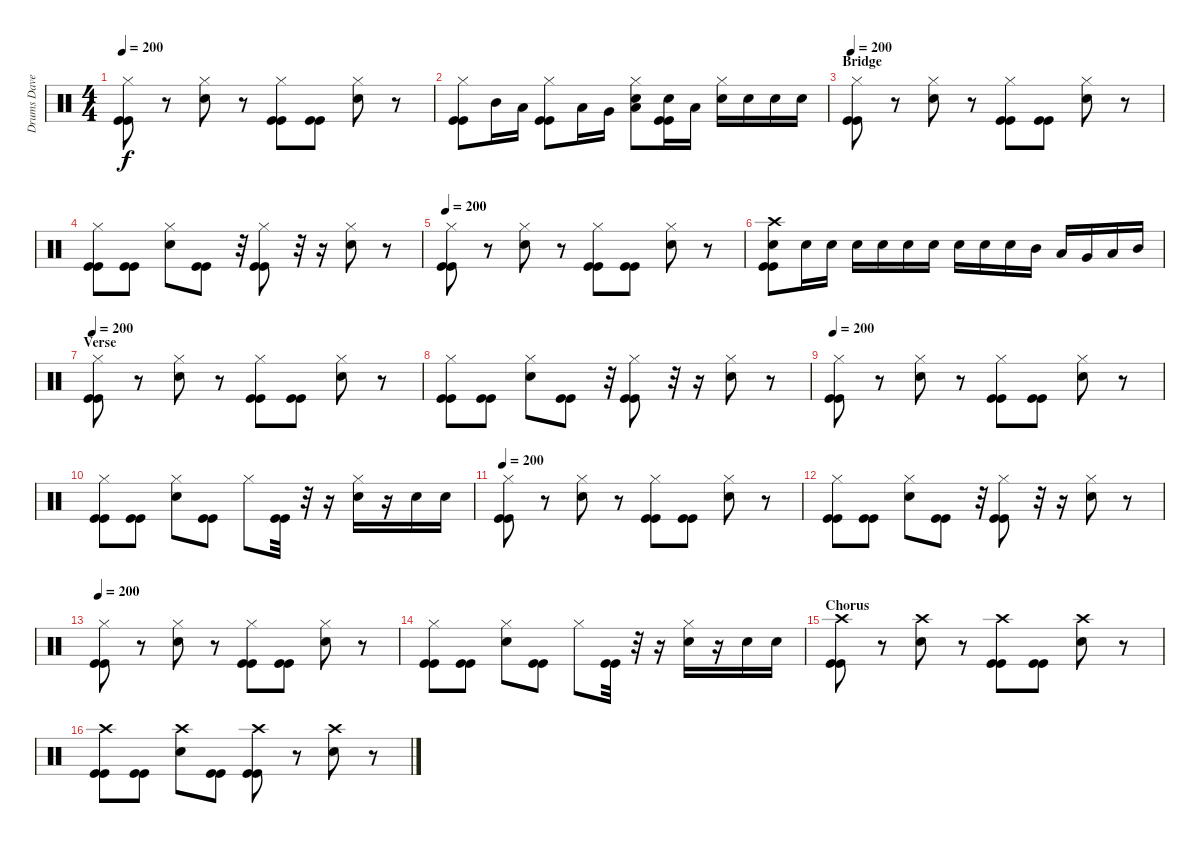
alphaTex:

\track ("Drums Dave Grohl" "Drums Dave") {instrument percussion}
\staff {score}
\articulation defaults
\ts (4 4)
\tempo 200
\clef neutral
\ks c
("Hi-Hat (closed)" "Kick (hit)" "Kick (hit)").8{dy f} r.8 ("Hi-Hat (closed)" "Electric Snare (hit)").8 r.8 ("Hi-Hat (closed)" "Kick (hit)" "Kick (hit)").8 ("Kick (hit)" "Kick (hit)").8 ("Hi-Hat (closed)" "Electric Snare (hit)").8 r.8 |
("Hi-Hat (closed)" "Kick (hit)" "Kick (hit)").8 "Mid Tom (hit)".16 "Low Tom (hit)".16 ("Hi-Hat (closed)" "Kick (hit)" "Kick (hit)").8 "Low Tom (hit)".16 "Very Low Tom (hit)".16 ("Hi-Hat (closed)" "Low Tom (hit)" "Electric Snare (hit)").8 ("Electric Snare (hit)" "Kick (hit)" "Kick (hit)").16 "Low Tom (hit)".16 ("Hi-Hat (closed)" "Electric Snare (hit)").16 "Electric Snare (hit)".16 "Electric Snare (hit)".16 "Electric Snare (hit)".16 |
\section ("" "Bridge")
\tempo 200
("Hi-Hat (closed)" "Kick (hit)" "Kick (hit)").8 r.8 ("Hi-Hat (closed)" "Electric Snare (hit)").8 r.8 ("Hi-Hat (closed)" "Kick (hit)" "Kick (hit)").8 ("Kick (hit)" "Kick (hit)").8 ("Hi-Hat (closed)" "Electric Snare (hit)").8 r.8 |
("Hi-Hat (closed)" "Kick (hit)" "Kick (hit)").8 ("Kick (hit)" "Kick (hit)").8 ("Hi-Hat (closed)" "Electric Snare (hit)").8 ("Kick (hit)" "Kick (hit)").8 r.32 ("Hi-Hat (closed)" "Kick (hit)" "Kick (hit)").8 r.32 r.16 ("Hi-Hat (closed)" "Electric Snare (hit)").8 r.8 |
\tempo 200
("Hi-Hat (closed)" "Kick (hit)" "Kick (hit)").8 r.8 ("Hi-Hat (closed)" "Electric Snare (hit)").8 r.8 ("Hi-Hat (closed)" "Kick (hit)" "Kick (hit)").8 ("Kick (hit)" "Kick (hit)").8 ("Hi-Hat (closed)" "Electric Snare (hit)").8 r.8 |
("Crash high (hit)" "Electric Snare (hit)" "Kick (hit)" "Kick (hit)").8 "Electric Snare (hit)".16 "Electric Snare (hit)".16 "Electric Snare (hit)".16 "Electric Snare (hit)".16 "Electric Snare (hit)".16 "Electric Snare (hit)".16 "Electric Snare (hit)".16 "Electric Snare (hit)".16 "Electric Snare (hit)".16 "Mid Tom (hit)".16 "Low Tom (hit)".16 "Very Low Tom (hit)".16 "Low Tom (hit)".16 "Mid Tom (hit)".16 |
\section ("" "Verse")
\tempo 200
("Hi-Hat (closed)" "Kick (hit)" "Kick (hit)").8 r.8 ("Hi-Hat (closed)" "Electric Snare (hit)").8 r.8 ("Hi-Hat (closed)" "Kick (hit)" "Kick (hit)").8 ("Kick (hit)" "Kick (hit)").8 ("Hi-Hat (closed)" "Electric Snare (hit)").8 r.8 |
("Hi-Hat (closed)" "Kick (hit)" "Kick (hit)").8 ("Kick (hit)" "Kick (hit)").8 ("Hi-Hat (closed)" "Electric Snare (hit)").8 ("Kick (hit)" "Kick (hit)").8 r.32 ("Hi-Hat (closed)" "Kick (hit)" "Kick (hit)").8 r.32 r.16 ("Hi-Hat (closed)" "Electric Snare (hit)").8 r.8 |
\tempo 200
("Hi-Hat (closed)" "Kick (hit)" "Kick (hit)").8 r.8 ("Hi-Hat (closed)" "Electric Snare (hit)").8 r.8 ("Hi-Hat (closed)" "Kick (hit)" "Kick (hit)").8 ("Kick (hit)" "Kick (hit)").8 ("Hi-Hat (closed)" "Electric Snare (hit)").8 r.8 |
("Hi-Hat (closed)" "Kick (hit)" "Kick (hit)").8 ("Kick (hit)" "Kick (hit)").8 ("Hi-Hat (closed)" "Electric Snare (hit)").8 ("Kick (hit)" "Kick (hit)").8 "Hi-Hat (closed)".8 ("Kick (hit)" "Kick (hit)").32 r.32 r.16 ("Hi-Hat (closed)" "Electric Snare (hit)").16 r.16 "Electric Snare (hit)".16 "Electric Snare (hit)".16 |
\tempo 200
("Hi-Hat (closed)" "Kick (hit)" "Kick (hit)").8 r.8 ("Hi-Hat (closed)" "Electric Snare (hit)").8 r.8 ("Hi-Hat (closed)" "Kick (hit)" "Kick (hit)").8 ("Kick (hit)" "Kick (hit)").8 ("Hi-Hat (closed)" "Electric Snare (hit)").8 r.8 |
("Hi-Hat (closed)" "Kick (hit)" "Kick (hit)").8 ("Kick (hit)" "Kick (hit)").8 ("Hi-Hat (closed)" "Electric Snare (hit)").8 ("Kick (hit)" "Kick (hit)").8 r.32 ("Hi-Hat (closed)" "Kick (hit)" "Kick (hit)").8 r.32 r.16 ("Hi-Hat (closed)" "Electric Snare (hit)").8 r.8 |
\tempo 200
("Hi-Hat (closed)" "Kick (hit)" "Kick (hit)").8 r.8 ("Hi-Hat (closed)" "Electric Snare (hit)").8 r.8 ("Hi-Hat (closed)" "Kick (hit)" "Kick (hit)").8 ("Kick (hit)" "Kick (hit)").8 ("Hi-Hat (closed)" "Electric Snare (hit)").8 r.8 |
("Hi-Hat (closed)" "Kick (hit)" "Kick (hit)").8 ("Kick (hit)" "Kick (hit)").8 ("Hi-Hat (closed)" "Electric Snare (hit)").8 ("Kick (hit)" "Kick (hit)").8 "Hi-Hat (closed)".8 ("Kick (hit)" "Kick (hit)").32 r.32 r.16 ("Hi-Hat (closed)" "Electric Snare (hit)").16 r.16 "Electric Snare (hit)".16 "Electric Snare (hit)".16 |
\section ("" "Chorus")
("Crash high (hit)" "Kick (hit)" "Kick (hit)").8 r.8 ("Crash high (hit)" "Electric Snare (hit)").8 r.8 ("Crash high (hit)" "Kick (hit)" "Kick (hit)").8 ("Kick (hit)" "Kick (hit)").8 ("Crash high (hit)" "Electric Snare (hit)").8 r.8 |
("Crash high (hit)" "Kick (hit)" "Kick (hit)").8 ("Kick (hit)" "Kick (hit)").8 ("Crash high (hit)" "Electric Snare (hit)").8 ("Kick (hit)" "Kick (hit)").8 ("Crash high (hit)" "Kick (hit)" "Kick (hit)").8 r.8 ("Crash high (hit)" "Electric Snare (hit)").8 r.8
